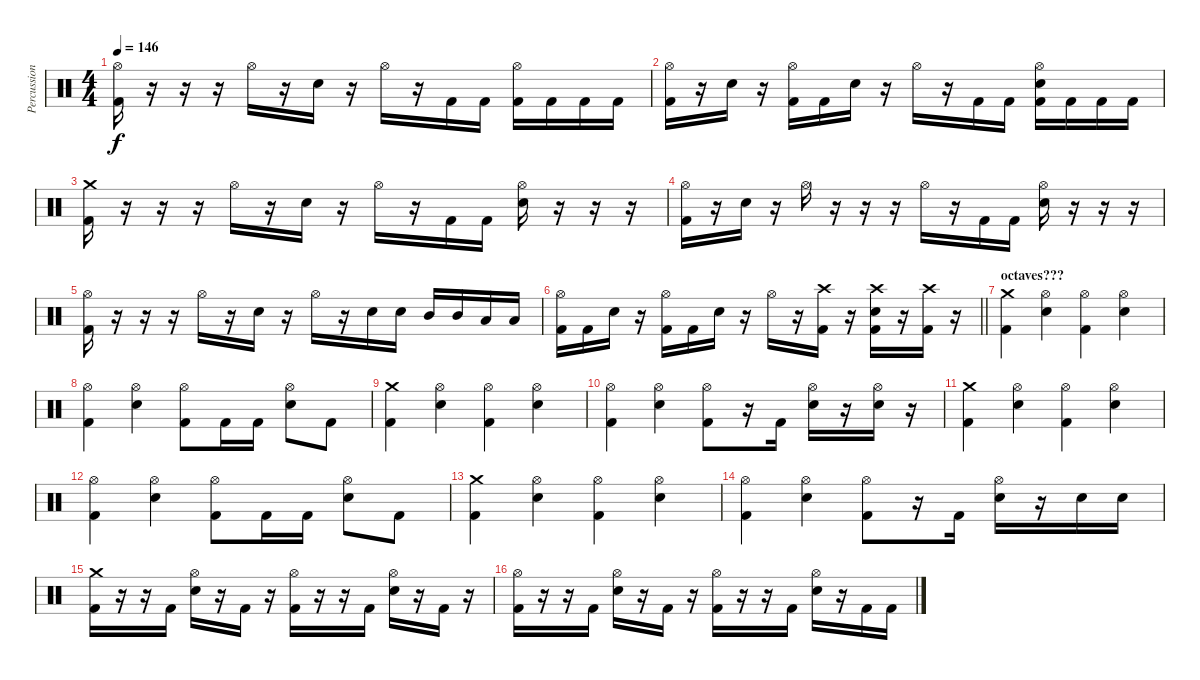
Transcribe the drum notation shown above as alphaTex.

\track ("Percussion" "Percussion") {instrument percussion}
\staff {score}
\articulation defaults
\ts (4 4)
\tempo 146
\clef neutral
\ks c
("Hi-Hat (open)" "Kick (hit) 2").16{dy f} r.16 r.16 r.16 "Hi-Hat (open)".16 r.16 "Snare (hit) 2".16 r.16 "Hi-Hat (open)".16 r.16 "Kick (hit) 2".16 "Kick (hit) 2".16 ("Hi-Hat (open)" "Kick (hit) 2").16 "Kick (hit) 2".16 "Kick (hit) 2".16 "Kick (hit) 2".16 |
("Hi-Hat (open)" "Kick (hit) 2").16 r.16 "Snare (hit) 2".16 r.16 ("Hi-Hat (open)" "Kick (hit) 2").16 "Kick (hit) 2".16 "Snare (hit) 2".16 r.16 "Hi-Hat (open)".16 r.16 "Kick (hit) 2".16 "Kick (hit) 2".16 ("Hi-Hat (open)" "Snare (hit) 2" "Kick (hit) 2").16 "Kick (hit) 2".16 "Kick (hit) 2".16 "Kick (hit) 2".16 |
("Crash medium (hit)" "Kick (hit) 2").16 r.16 r.16 r.16 "Hi-Hat (open)".16 r.16 "Snare (hit) 2".16 r.16 "Hi-Hat (open)".16 r.16 "Kick (hit) 2".16 "Kick (hit) 2".16 ("Hi-Hat (open)" "Snare (hit) 2").16 r.16 r.16 r.16 |
("Hi-Hat (open)" "Kick (hit) 2").16 r.16 "Snare (hit) 2".16 r.16 "Hi-Hat (open)".16 r.16 r.16 r.16 "Hi-Hat (open)".16 r.16 "Kick (hit) 2".16 "Kick (hit) 2".16 ("Hi-Hat (open)" "Snare (hit) 2").16 r.16 r.16 r.16 |
("Hi-Hat (open)" "Kick (hit) 2").16 r.16 r.16 r.16 "Hi-Hat (open)".16 r.16 "Snare (hit) 2".16 r.16 "Hi-Hat (open)".16 r.16 "Snare (hit) 2".16 "Snare (hit) 2".16 "Mid Tom (hit)".16 "Mid Tom (hit)".16 "Low Tom (hit)".16 "Low Tom (hit)".16 |
\barLineRight lightlight
("Hi-Hat (open)" "Kick (hit) 2").16 "Kick (hit) 2".16 "Snare (hit) 2".16 r.16 ("Hi-Hat (open)" "Kick (hit) 2").16 "Kick (hit) 2".16 "Snare (hit) 2".16 r.16 "Hi-Hat (open)".16 r.16 ("Crash high (hit)" "Kick (hit) 2").16 r.16 ("Crash high (hit)" "Snare (hit) 2" "Kick (hit) 2").16 r.16 ("Crash high (hit)" "Kick (hit) 2").16 r.16 |
\section ("" "octaves???")
("Crash medium (hit)" "Kick (hit) 2").4 ("Hi-Hat (open)" "Snare (hit) 2").4 ("Hi-Hat (open)" "Kick (hit) 2").4 ("Hi-Hat (open)" "Snare (hit) 2").4 |
("Hi-Hat (open)" "Kick (hit) 2").4 ("Hi-Hat (open)" "Snare (hit) 2").4 ("Hi-Hat (open)" "Kick (hit) 2").8 "Kick (hit) 2".16 "Kick (hit) 2".16 ("Hi-Hat (open)" "Snare (hit) 2").8 "Kick (hit) 2".8 |
("Crash medium (hit)" "Kick (hit) 2").4 ("Hi-Hat (open)" "Snare (hit) 2").4 ("Hi-Hat (open)" "Kick (hit) 2").4 ("Hi-Hat (open)" "Snare (hit) 2").4 |
("Hi-Hat (open)" "Kick (hit) 2").4 ("Hi-Hat (open)" "Snare (hit) 2").4 ("Hi-Hat (open)" "Kick (hit) 2").8 r.16 "Kick (hit) 2".16 ("Hi-Hat (open)" "Snare (hit) 2").16 r.16 ("Hi-Hat (open)" "Snare (hit) 2").16 r.16 |
("Crash medium (hit)" "Kick (hit) 2").4 ("Hi-Hat (open)" "Snare (hit) 2").4 ("Hi-Hat (open)" "Kick (hit) 2").4 ("Hi-Hat (open)" "Snare (hit) 2").4 |
("Hi-Hat (open)" "Kick (hit) 2").4 ("Hi-Hat (open)" "Snare (hit) 2").4 ("Hi-Hat (open)" "Kick (hit) 2").8 "Kick (hit) 2".16 "Kick (hit) 2".16 ("Hi-Hat (open)" "Snare (hit) 2").8 "Kick (hit) 2".8 |
("Crash medium (hit)" "Kick (hit) 2").4 ("Hi-Hat (open)" "Snare (hit) 2").4 ("Hi-Hat (open)" "Kick (hit) 2").4 ("Hi-Hat (open)" "Snare (hit) 2").4 |
("Hi-Hat (open)" "Kick (hit) 2").4 ("Hi-Hat (open)" "Snare (hit) 2").4 ("Hi-Hat (open)" "Kick (hit) 2").8 r.16 "Kick (hit) 2".16 ("Hi-Hat (open)" "Snare (hit) 2").16 r.16 "Snare (hit) 2".16 "Snare (hit) 2".16 |
("Crash medium (hit)" "Kick (hit) 2").16 r.16 r.16 "Kick (hit) 2".16 ("Hi-Hat (open)" "Snare (hit) 2").16 r.16 "Kick (hit) 2".16 r.16 ("Hi-Hat (open)" "Kick (hit) 2").16 r.16 r.16 "Kick (hit) 2".16 ("Hi-Hat (open)" "Snare (hit) 2").16 r.16 "Kick (hit) 2".16 r.16 |
("Hi-Hat (open)" "Kick (hit) 2").16 r.16 r.16 "Kick (hit) 2".16 ("Hi-Hat (open)" "Snare (hit) 2").16 r.16 "Kick (hit) 2".16 r.16 ("Hi-Hat (open)" "Kick (hit) 2").16 r.16 r.16 "Kick (hit) 2".16 ("Hi-Hat (open)" "Snare (hit) 2").16 r.16 "Kick (hit) 2".16 "Kick (hit) 2".16
